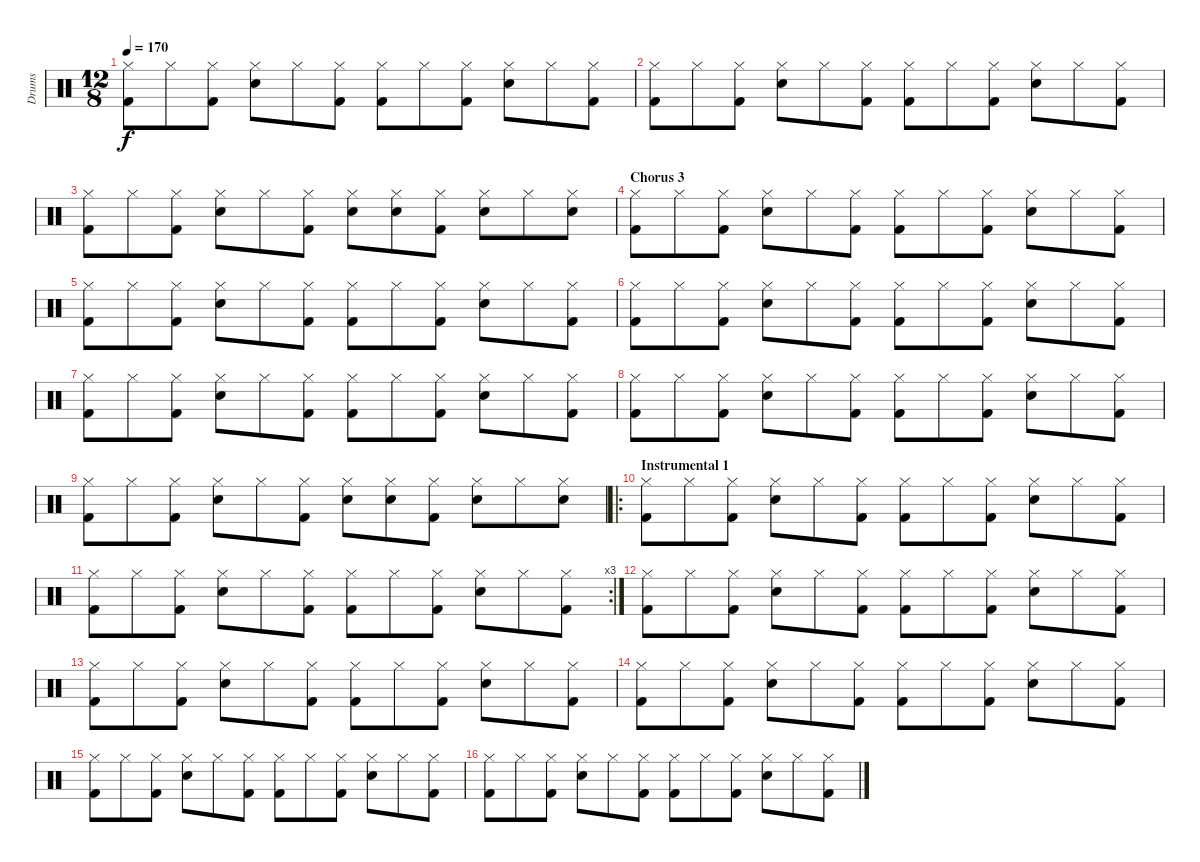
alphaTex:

\track ("Drums" "Drums") {instrument percussion}
\staff {score}
\articulation defaults
\ts (12 8)
\tempo 170
\clef neutral
\ks c
("Kick (hit) 2" "Hi-Hat (closed)").8{dy f} "Hi-Hat (closed)".8 ("Kick (hit) 2" "Hi-Hat (closed)").8 ("Snare (hit) 2" "Hi-Hat (closed)").8 "Hi-Hat (closed)".8 ("Kick (hit) 2" "Hi-Hat (closed)").8 ("Kick (hit) 2" "Hi-Hat (closed)").8 "Hi-Hat (closed)".8 ("Kick (hit) 2" "Hi-Hat (closed)").8 ("Snare (hit) 2" "Hi-Hat (closed)").8 "Hi-Hat (closed)".8 ("Kick (hit) 2" "Hi-Hat (closed)").8 |
("Kick (hit) 2" "Hi-Hat (closed)").8 "Hi-Hat (closed)".8 ("Kick (hit) 2" "Hi-Hat (closed)").8 ("Snare (hit) 2" "Hi-Hat (closed)").8 "Hi-Hat (closed)".8 ("Kick (hit) 2" "Hi-Hat (closed)").8 ("Kick (hit) 2" "Hi-Hat (closed)").8 "Hi-Hat (closed)".8 ("Kick (hit) 2" "Hi-Hat (closed)").8 ("Snare (hit) 2" "Hi-Hat (closed)").8 "Hi-Hat (closed)".8 ("Kick (hit) 2" "Hi-Hat (closed)").8 |
("Kick (hit) 2" "Hi-Hat (closed)").8 "Hi-Hat (closed)".8 ("Kick (hit) 2" "Hi-Hat (closed)").8 ("Snare (hit) 2" "Hi-Hat (closed)").8 "Hi-Hat (closed)".8 ("Kick (hit) 2" "Hi-Hat (closed)").8 ("Snare (hit) 2" "Hi-Hat (closed)").8 ("Snare (hit) 2" "Hi-Hat (closed)").8 ("Kick (hit) 2" "Hi-Hat (closed)").8 ("Snare (hit) 2" "Hi-Hat (closed)").8 "Hi-Hat (closed)".8 ("Snare (hit) 2" "Hi-Hat (closed)").8 |
\section ("" "Chorus 3")
("Kick (hit) 2" "Hi-Hat (closed)").8 "Hi-Hat (closed)".8 ("Kick (hit) 2" "Hi-Hat (closed)").8 ("Snare (hit) 2" "Hi-Hat (closed)").8 "Hi-Hat (closed)".8 ("Kick (hit) 2" "Hi-Hat (closed)").8 ("Kick (hit) 2" "Hi-Hat (closed)").8 "Hi-Hat (closed)".8 ("Kick (hit) 2" "Hi-Hat (closed)").8 ("Snare (hit) 2" "Hi-Hat (closed)").8 "Hi-Hat (closed)".8 ("Kick (hit) 2" "Hi-Hat (closed)").8 |
("Kick (hit) 2" "Hi-Hat (closed)").8 "Hi-Hat (closed)".8 ("Kick (hit) 2" "Hi-Hat (closed)").8 ("Snare (hit) 2" "Hi-Hat (closed)").8 "Hi-Hat (closed)".8 ("Kick (hit) 2" "Hi-Hat (closed)").8 ("Kick (hit) 2" "Hi-Hat (closed)").8 "Hi-Hat (closed)".8 ("Kick (hit) 2" "Hi-Hat (closed)").8 ("Snare (hit) 2" "Hi-Hat (closed)").8 "Hi-Hat (closed)".8 ("Kick (hit) 2" "Hi-Hat (closed)").8 |
("Kick (hit) 2" "Hi-Hat (closed)").8 "Hi-Hat (closed)".8 ("Kick (hit) 2" "Hi-Hat (closed)").8 ("Snare (hit) 2" "Hi-Hat (closed)").8 "Hi-Hat (closed)".8 ("Kick (hit) 2" "Hi-Hat (closed)").8 ("Kick (hit) 2" "Hi-Hat (closed)").8 "Hi-Hat (closed)".8 ("Kick (hit) 2" "Hi-Hat (closed)").8 ("Snare (hit) 2" "Hi-Hat (closed)").8 "Hi-Hat (closed)".8 ("Kick (hit) 2" "Hi-Hat (closed)").8 |
("Kick (hit) 2" "Hi-Hat (closed)").8 "Hi-Hat (closed)".8 ("Kick (hit) 2" "Hi-Hat (closed)").8 ("Snare (hit) 2" "Hi-Hat (closed)").8 "Hi-Hat (closed)".8 ("Kick (hit) 2" "Hi-Hat (closed)").8 ("Kick (hit) 2" "Hi-Hat (closed)").8 "Hi-Hat (closed)".8 ("Kick (hit) 2" "Hi-Hat (closed)").8 ("Snare (hit) 2" "Hi-Hat (closed)").8 "Hi-Hat (closed)".8 ("Kick (hit) 2" "Hi-Hat (closed)").8 |
("Kick (hit) 2" "Hi-Hat (closed)").8 "Hi-Hat (closed)".8 ("Kick (hit) 2" "Hi-Hat (closed)").8 ("Snare (hit) 2" "Hi-Hat (closed)").8 "Hi-Hat (closed)".8 ("Kick (hit) 2" "Hi-Hat (closed)").8 ("Kick (hit) 2" "Hi-Hat (closed)").8 "Hi-Hat (closed)".8 ("Kick (hit) 2" "Hi-Hat (closed)").8 ("Snare (hit) 2" "Hi-Hat (closed)").8 "Hi-Hat (closed)".8 ("Kick (hit) 2" "Hi-Hat (closed)").8 |
("Kick (hit) 2" "Hi-Hat (closed)").8 "Hi-Hat (closed)".8 ("Kick (hit) 2" "Hi-Hat (closed)").8 ("Snare (hit) 2" "Hi-Hat (closed)").8 "Hi-Hat (closed)".8 ("Kick (hit) 2" "Hi-Hat (closed)").8 ("Snare (hit) 2" "Hi-Hat (closed)").8 ("Snare (hit) 2" "Hi-Hat (closed)").8 ("Kick (hit) 2" "Hi-Hat (closed)").8 ("Snare (hit) 2" "Hi-Hat (closed)").8 "Hi-Hat (closed)".8 ("Snare (hit) 2" "Hi-Hat (closed)").8 |
\ro
\section ("" "Instrumental 1")
("Kick (hit) 2" "Hi-Hat (closed)").8 "Hi-Hat (closed)".8 ("Kick (hit) 2" "Hi-Hat (closed)").8 ("Snare (hit) 2" "Hi-Hat (closed)").8 "Hi-Hat (closed)".8 ("Kick (hit) 2" "Hi-Hat (closed)").8 ("Kick (hit) 2" "Hi-Hat (closed)").8 "Hi-Hat (closed)".8 ("Kick (hit) 2" "Hi-Hat (closed)").8 ("Snare (hit) 2" "Hi-Hat (closed)").8 "Hi-Hat (closed)".8 ("Kick (hit) 2" "Hi-Hat (closed)").8 |
\rc 3
("Kick (hit) 2" "Hi-Hat (closed)").8 "Hi-Hat (closed)".8 ("Kick (hit) 2" "Hi-Hat (closed)").8 ("Snare (hit) 2" "Hi-Hat (closed)").8 "Hi-Hat (closed)".8 ("Kick (hit) 2" "Hi-Hat (closed)").8 ("Kick (hit) 2" "Hi-Hat (closed)").8 "Hi-Hat (closed)".8 ("Kick (hit) 2" "Hi-Hat (closed)").8 ("Snare (hit) 2" "Hi-Hat (closed)").8 "Hi-Hat (closed)".8 ("Kick (hit) 2" "Hi-Hat (closed)").8 |
("Kick (hit) 2" "Hi-Hat (closed)").8 "Hi-Hat (closed)".8 ("Kick (hit) 2" "Hi-Hat (closed)").8 ("Snare (hit) 2" "Hi-Hat (closed)").8 "Hi-Hat (closed)".8 ("Kick (hit) 2" "Hi-Hat (closed)").8 ("Kick (hit) 2" "Hi-Hat (closed)").8 "Hi-Hat (closed)".8 ("Kick (hit) 2" "Hi-Hat (closed)").8 ("Snare (hit) 2" "Hi-Hat (closed)").8 "Hi-Hat (closed)".8 ("Kick (hit) 2" "Hi-Hat (closed)").8 |
("Kick (hit) 2" "Hi-Hat (closed)").8 "Hi-Hat (closed)".8 ("Kick (hit) 2" "Hi-Hat (closed)").8 ("Snare (hit) 2" "Hi-Hat (closed)").8 "Hi-Hat (closed)".8 ("Kick (hit) 2" "Hi-Hat (closed)").8 ("Kick (hit) 2" "Hi-Hat (closed)").8 "Hi-Hat (closed)".8 ("Kick (hit) 2" "Hi-Hat (closed)").8 ("Snare (hit) 2" "Hi-Hat (closed)").8 "Hi-Hat (closed)".8 ("Kick (hit) 2" "Hi-Hat (closed)").8 |
("Kick (hit) 2" "Hi-Hat (closed)").8 "Hi-Hat (closed)".8 ("Kick (hit) 2" "Hi-Hat (closed)").8 ("Snare (hit) 2" "Hi-Hat (closed)").8 "Hi-Hat (closed)".8 ("Kick (hit) 2" "Hi-Hat (closed)").8 ("Kick (hit) 2" "Hi-Hat (closed)").8 "Hi-Hat (closed)".8 ("Kick (hit) 2" "Hi-Hat (closed)").8 ("Snare (hit) 2" "Hi-Hat (closed)").8 "Hi-Hat (closed)".8 ("Kick (hit) 2" "Hi-Hat (closed)").8 |
("Kick (hit) 2" "Hi-Hat (closed)").8 "Hi-Hat (closed)".8 ("Kick (hit) 2" "Hi-Hat (closed)").8 ("Snare (hit) 2" "Hi-Hat (closed)").8 "Hi-Hat (closed)".8 ("Kick (hit) 2" "Hi-Hat (closed)").8 ("Kick (hit) 2" "Hi-Hat (closed)").8 "Hi-Hat (closed)".8 ("Kick (hit) 2" "Hi-Hat (closed)").8 ("Snare (hit) 2" "Hi-Hat (closed)").8 "Hi-Hat (closed)".8 ("Kick (hit) 2" "Hi-Hat (closed)").8 |
("Kick (hit) 2" "Hi-Hat (closed)").8 "Hi-Hat (closed)".8 ("Kick (hit) 2" "Hi-Hat (closed)").8 ("Snare (hit) 2" "Hi-Hat (closed)").8 "Hi-Hat (closed)".8 ("Kick (hit) 2" "Hi-Hat (closed)").8 ("Kick (hit) 2" "Hi-Hat (closed)").8 "Hi-Hat (closed)".8 ("Kick (hit) 2" "Hi-Hat (closed)").8 ("Snare (hit) 2" "Hi-Hat (closed)").8 "Hi-Hat (closed)".8 ("Kick (hit) 2" "Hi-Hat (closed)").8
